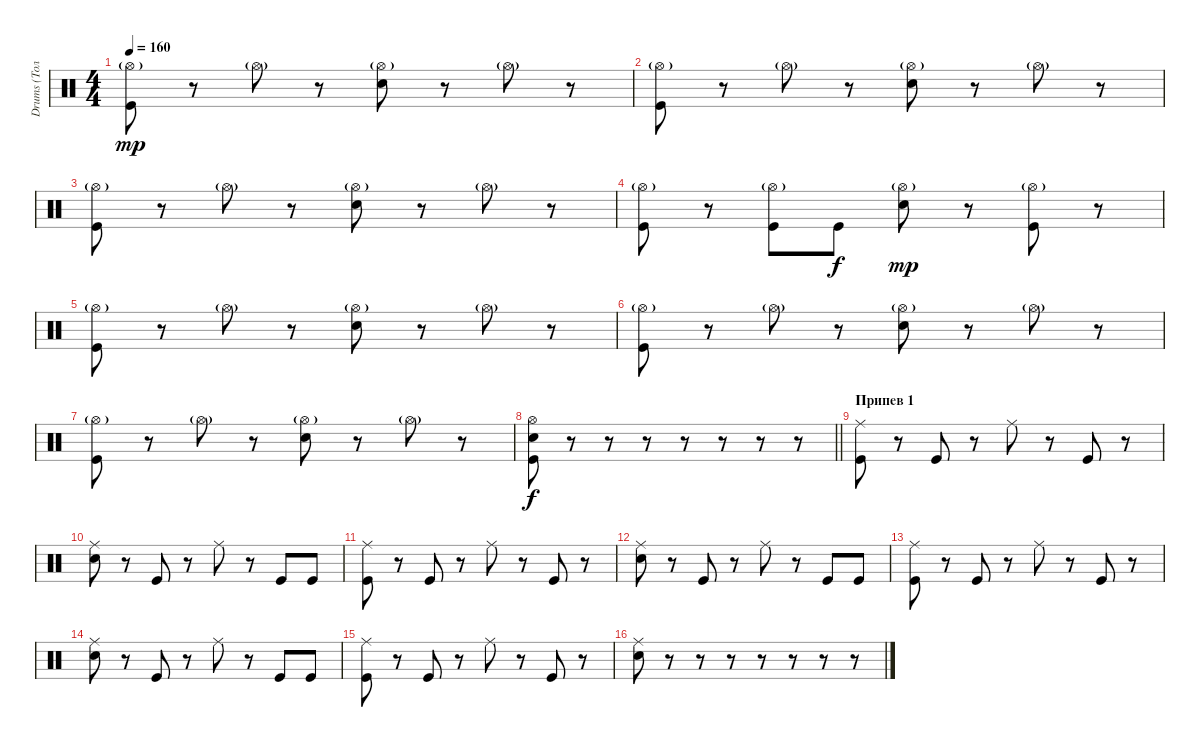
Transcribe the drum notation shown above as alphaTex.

\track ("Drums (Толян)" "Drums (Тол") {instrument percussion}
\staff {score}
\articulation defaults
\ts (4 4)
\tempo 160
\clef neutral
\ks c
("Hi-Hat (open)"{g} "Kick (hit)").8{dy mp} r.8 "Hi-Hat (open)"{g}.8 r.8 ("Hi-Hat (open)"{g} "Electric Snare (hit)").8 r.8 "Hi-Hat (open)"{g}.8 r.8 |
("Hi-Hat (open)"{g} "Kick (hit)").8 r.8 "Hi-Hat (open)"{g}.8 r.8 ("Hi-Hat (open)"{g} "Electric Snare (hit)").8 r.8 "Hi-Hat (open)"{g}.8 r.8 |
("Hi-Hat (open)"{g} "Kick (hit)").8 r.8 "Hi-Hat (open)"{g}.8 r.8 ("Hi-Hat (open)"{g} "Electric Snare (hit)").8 r.8 "Hi-Hat (open)"{g}.8 r.8 |
("Hi-Hat (open)"{g} "Kick (hit)").8 r.8 ("Hi-Hat (open)"{g} "Kick (hit)").8 "Kick (hit)".8{dy f} ("Hi-Hat (open)"{g} "Electric Snare (hit)").8{dy mp} r.8 ("Hi-Hat (open)"{g} "Kick (hit)").8 r.8 |
("Hi-Hat (open)"{g} "Kick (hit)").8 r.8 "Hi-Hat (open)"{g}.8 r.8 ("Hi-Hat (open)"{g} "Electric Snare (hit)").8 r.8 "Hi-Hat (open)"{g}.8 r.8 |
("Hi-Hat (open)"{g} "Kick (hit)").8 r.8 "Hi-Hat (open)"{g}.8 r.8 ("Hi-Hat (open)"{g} "Electric Snare (hit)").8 r.8 "Hi-Hat (open)"{g}.8 r.8 |
("Hi-Hat (open)"{g} "Kick (hit)").8 r.8 "Hi-Hat (open)"{g}.8 r.8 ("Hi-Hat (open)"{g} "Electric Snare (hit)").8 r.8 "Hi-Hat (open)"{g}.8 r.8 |
\barLineRight lightlight
("Hi-Hat (open)" "Electric Snare (hit)" "Kick (hit)").8{dy f} r.8 r.8 r.8 r.8 r.8 r.8 r.8 |
\section ("" "Припев 1")
("Ride (middle)" "Kick (hit)").8 r.8 "Kick (hit)".8 r.8 "Ride (middle)".8 r.8 "Kick (hit)".8 r.8 |
("Ride (middle)" "Electric Snare (hit)").8 r.8 "Kick (hit)".8 r.8 "Ride (middle)".8 r.8 "Kick (hit)".8 "Kick (hit)".8 |
("Ride (middle)" "Kick (hit)").8 r.8 "Kick (hit)".8 r.8 "Ride (middle)".8 r.8 "Kick (hit)".8 r.8 |
("Ride (middle)" "Electric Snare (hit)").8 r.8 "Kick (hit)".8 r.8 "Ride (middle)".8 r.8 "Kick (hit)".8 "Kick (hit)".8 |
("Ride (middle)" "Kick (hit)").8 r.8 "Kick (hit)".8 r.8 "Ride (middle)".8 r.8 "Kick (hit)".8 r.8 |
("Ride (middle)" "Electric Snare (hit)").8 r.8 "Kick (hit)".8 r.8 "Ride (middle)".8 r.8 "Kick (hit)".8 "Kick (hit)".8 |
("Ride (middle)" "Kick (hit)").8 r.8 "Kick (hit)".8 r.8 "Ride (middle)".8 r.8 "Kick (hit)".8 r.8 |
("Ride (middle)" "Electric Snare (hit)").8 r.8 r.8 r.8 r.8 r.8 r.8 r.8
